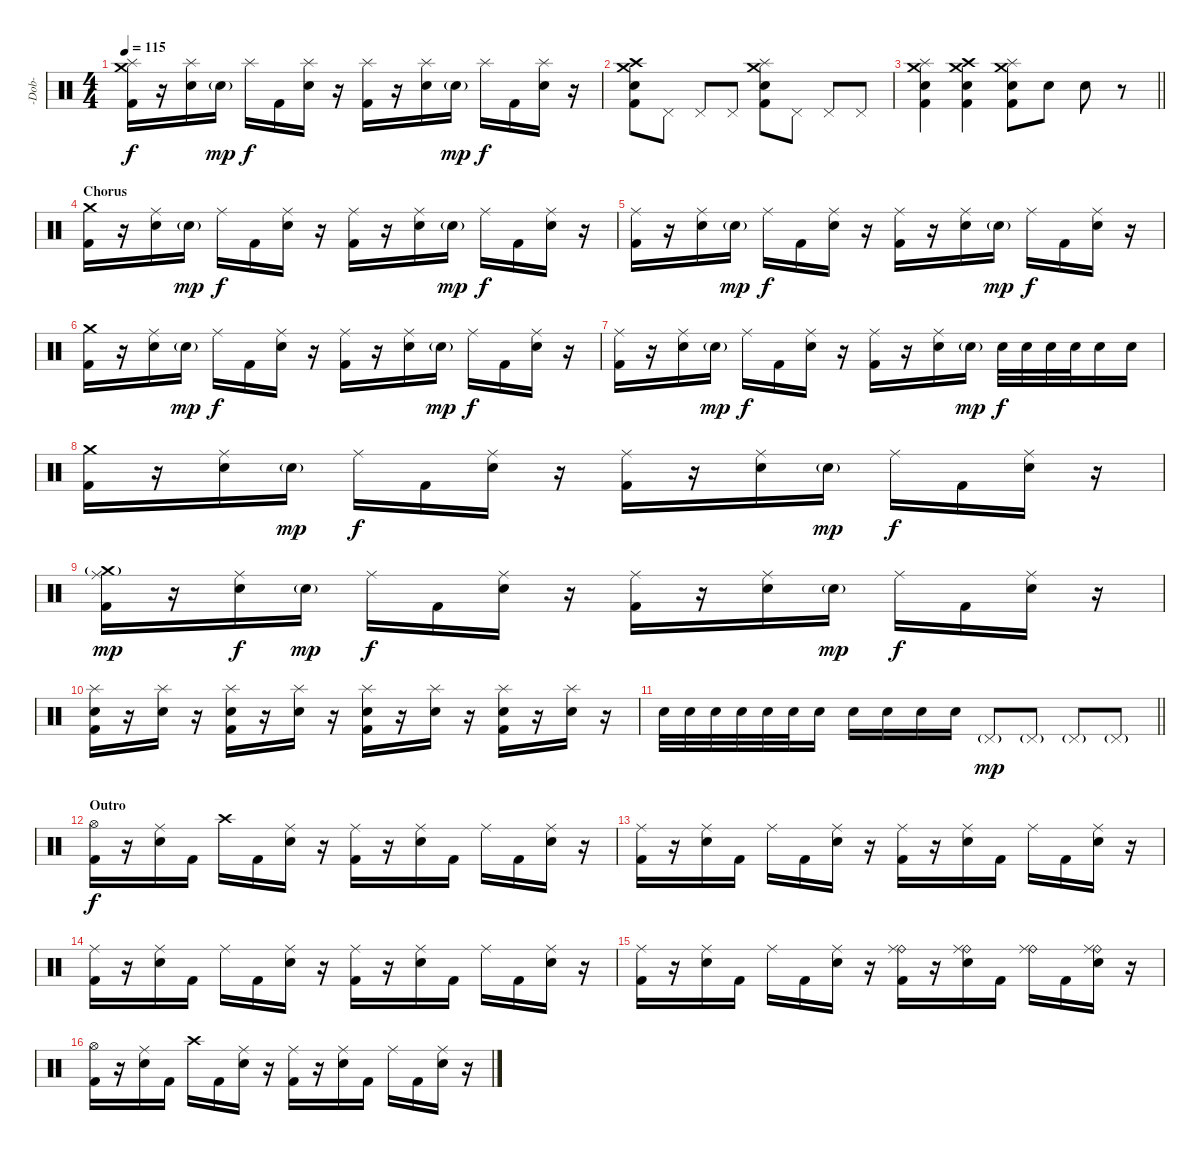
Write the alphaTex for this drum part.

\track ("-Dob-" "-Dob-") {instrument percussion}
\staff {score}
\articulation defaults
\ts (4 4)
\tempo 115
\clef neutral
\ks c
("Crash medium (hit)" "Splash (hit)" "Kick (hit) 2").16{dy f} r.16 ("Splash (hit)" "Snare (hit) 2").16 "Snare (hit) 2"{g}.16{dy mp} "Splash (hit)".16{dy f} "Kick (hit) 2".16 ("Splash (hit)" "Snare (hit) 2").16 r.16 ("Splash (hit)" "Kick (hit) 2").16 r.16 ("Splash (hit)" "Snare (hit) 2").16 "Snare (hit) 2"{g}.16{dy mp} "Splash (hit)".16{dy f} "Kick (hit) 2".16 ("Splash (hit)" "Snare (hit) 2").16 r.16 |
("Crash high (hit)" "Crash medium (hit)" "Snare (hit) 2" "Kick (hit) 2").8 "Pedal Hi-Hat (hit)".8 "Pedal Hi-Hat (hit)".8 "Pedal Hi-Hat (hit)".8 ("Splash (hit)" "Crash medium (hit)" "Snare (hit) 2" "Kick (hit) 2").8 "Pedal Hi-Hat (hit)".8 "Pedal Hi-Hat (hit)".8 "Pedal Hi-Hat (hit)".8 |
\barLineRight lightlight
("Splash (hit)" "Crash medium (hit)" "Snare (hit) 2" "Kick (hit) 2").4 ("Crash high (hit)" "Crash medium (hit)" "Snare (hit) 2" "Kick (hit) 2").4 ("Splash (hit)" "Crash medium (hit)" "Snare (hit) 2" "Kick (hit) 2").8 "Snare (hit) 2".8 "Snare (hit) 2".8 r.8 |
\section ("" "Chorus")
("Crash medium (hit)" "Kick (hit) 2").16 r.16 ("Ride (middle)" "Snare (hit) 2").16 "Snare (hit) 2"{g}.16{dy mp} "Ride (middle)".16{dy f} "Kick (hit) 2".16 ("Ride (middle)" "Snare (hit) 2").16 r.16 ("Ride (middle)" "Kick (hit) 2").16 r.16 ("Ride (middle)" "Snare (hit) 2").16 "Snare (hit) 2"{g}.16{dy mp} "Ride (middle)".16{dy f} "Kick (hit) 2".16 ("Ride (middle)" "Snare (hit) 2").16 r.16 |
("Ride (middle)" "Kick (hit) 2").16 r.16 ("Ride (middle)" "Snare (hit) 2").16 "Snare (hit) 2"{g}.16{dy mp} "Ride (middle)".16{dy f} "Kick (hit) 2".16 ("Ride (middle)" "Snare (hit) 2").16 r.16 ("Ride (middle)" "Kick (hit) 2").16 r.16 ("Ride (middle)" "Snare (hit) 2").16 "Snare (hit) 2"{g}.16{dy mp} "Ride (middle)".16{dy f} "Kick (hit) 2".16 ("Ride (middle)" "Snare (hit) 2").16 r.16 |
("Crash medium (hit)" "Kick (hit) 2").16 r.16 ("Ride (middle)" "Snare (hit) 2").16 "Snare (hit) 2"{g}.16{dy mp} "Ride (middle)".16{dy f} "Kick (hit) 2".16 ("Ride (middle)" "Snare (hit) 2").16 r.16 ("Ride (middle)" "Kick (hit) 2").16 r.16 ("Ride (middle)" "Snare (hit) 2").16 "Snare (hit) 2"{g}.16{dy mp} "Ride (middle)".16{dy f} "Kick (hit) 2".16 ("Ride (middle)" "Snare (hit) 2").16 r.16 |
("Ride (middle)" "Kick (hit) 2").16 r.16 ("Ride (middle)" "Snare (hit) 2").16 "Snare (hit) 2"{g}.16{dy mp} "Ride (middle)".16{dy f} "Kick (hit) 2".16 ("Ride (middle)" "Snare (hit) 2").16 r.16 ("Ride (middle)" "Kick (hit) 2").16 r.16 ("Ride (middle)" "Snare (hit) 2").16 "Snare (hit) 2"{g}.16{dy mp} "Snare (hit) 2".32{dy f} "Snare (hit) 2".32 "Snare (hit) 2".32 "Snare (hit) 2".32 "Snare (hit) 2".16 "Snare (hit) 2".16 |
("Crash medium (hit)" "Kick (hit) 2").16 r.16 ("Ride (middle)" "Snare (hit) 2").16 "Snare (hit) 2"{g}.16{dy mp} "Ride (middle)".16{dy f} "Kick (hit) 2".16 ("Ride (middle)" "Snare (hit) 2").16 r.16 ("Ride (middle)" "Kick (hit) 2").16 r.16 ("Ride (middle)" "Snare (hit) 2").16 "Snare (hit) 2"{g}.16{dy mp} "Ride (middle)".16{dy f} "Kick (hit) 2".16 ("Ride (middle)" "Snare (hit) 2").16 r.16 |
("Crash medium (hit)"{g} "Ride (middle)" "Kick (hit) 2").16{dy mp} r.16 ("Ride (middle)" "Snare (hit) 2").16{dy f} "Snare (hit) 2"{g}.16{dy mp} "Ride (middle)".16{dy f} "Kick (hit) 2".16 ("Ride (middle)" "Snare (hit) 2").16 r.16 ("Ride (middle)" "Kick (hit) 2").16 r.16 ("Ride (middle)" "Snare (hit) 2").16 "Snare (hit) 2"{g}.16{dy mp} "Ride (middle)".16{dy f} "Kick (hit) 2".16 ("Ride (middle)" "Snare (hit) 2").16 r.16 |
("Splash (hit)" "Snare (hit) 2" "Kick (hit) 2").16 r.16 ("Splash (hit)" "Snare (hit) 2").16 r.16 ("Splash (hit)" "Snare (hit) 2" "Kick (hit) 2").16 r.16 ("Splash (hit)" "Snare (hit) 2").16 r.16 ("Splash (hit)" "Snare (hit) 2" "Kick (hit) 2").16 r.16 ("Splash (hit)" "Snare (hit) 2").16 r.16 ("Splash (hit)" "Snare (hit) 2" "Kick (hit) 2").16 r.16 ("Splash (hit)" "Snare (hit) 2").16 r.16 |
\barLineRight lightlight "Snare (hit) 2".32 "Snare (hit) 2".32 "Snare (hit) 2".32 "Snare (hit) 2".32 "Snare (hit) 2".32 "Snare (hit) 2".32 "Snare (hit) 2".16 "Snare (hit) 2".16 "Snare (hit) 2".16 "Snare (hit) 2".16 "Snare (hit) 2".16 "Pedal Hi-Hat (hit)"{g}.8{dy mp} "Pedal Hi-Hat (hit)"{g}.8 "Pedal Hi-Hat (hit)"{g}.8 "Pedal Hi-Hat (hit)"{g}.8
|
\section ("" "Outro")
("Hi-Hat (open)" "Kick (hit) 2").16{dy f} r.16 ("Ride (middle)" "Snare (hit) 2").16 "Kick (hit) 2".16 "Crash high (hit)".16 "Kick (hit) 2".16 ("Ride (middle)" "Snare (hit) 2").16 r.16 ("Ride (middle)" "Kick (hit) 2").16 r.16 ("Ride (middle)" "Snare (hit) 2").16 "Kick (hit) 2".16 "Ride (middle)".16 "Kick (hit) 2".16 ("Ride (middle)" "Snare (hit) 2").16 r.16 |
("Ride (middle)" "Kick (hit) 2").16 r.16 ("Ride (middle)" "Snare (hit) 2").16 "Kick (hit) 2".16 "Ride (middle)".16 "Kick (hit) 2".16 ("Ride (middle)" "Snare (hit) 2").16 r.16 ("Ride (middle)" "Kick (hit) 2").16 r.16 ("Ride (middle)" "Snare (hit) 2").16 "Kick (hit) 2".16 "Ride (middle)".16 "Kick (hit) 2".16 ("Ride (middle)" "Snare (hit) 2").16 r.16 |
("Ride (middle)" "Kick (hit) 2").16 r.16 ("Ride (middle)" "Snare (hit) 2").16 "Kick (hit) 2".16 "Ride (middle)".16 "Kick (hit) 2".16 ("Ride (middle)" "Snare (hit) 2").16 r.16 ("Ride (middle)" "Kick (hit) 2").16 r.16 ("Ride (middle)" "Snare (hit) 2").16 "Kick (hit) 2".16 "Ride (middle)".16 "Kick (hit) 2".16 ("Ride (middle)" "Snare (hit) 2").16 r.16 |
("Ride (middle)" "Kick (hit) 2").16 r.16 ("Ride (middle)" "Snare (hit) 2").16 "Kick (hit) 2".16 "Ride (middle)".16 "Kick (hit) 2".16 ("Ride (middle)" "Snare (hit) 2").16 r.16 ("Ride (bell)" "Ride (middle)" "Kick (hit) 2").16 r.16 ("Ride (bell)" "Ride (middle)" "Snare (hit) 2").16 "Kick (hit) 2".16 ("Ride (bell)" "Ride (middle)").16 "Kick (hit) 2".16 ("Ride (bell)" "Ride (middle)" "Snare (hit) 2").16 r.16 |
("Hi-Hat (open)" "Kick (hit) 2").16 r.16 ("Ride (middle)" "Snare (hit) 2").16 "Kick (hit) 2".16 "Crash high (hit)".16 "Kick (hit) 2".16 ("Ride (middle)" "Snare (hit) 2").16 r.16 ("Ride (middle)" "Kick (hit) 2").16 r.16 ("Ride (middle)" "Snare (hit) 2").16 "Kick (hit) 2".16 "Ride (middle)".16 "Kick (hit) 2".16 ("Ride (middle)" "Snare (hit) 2").16 r.16
